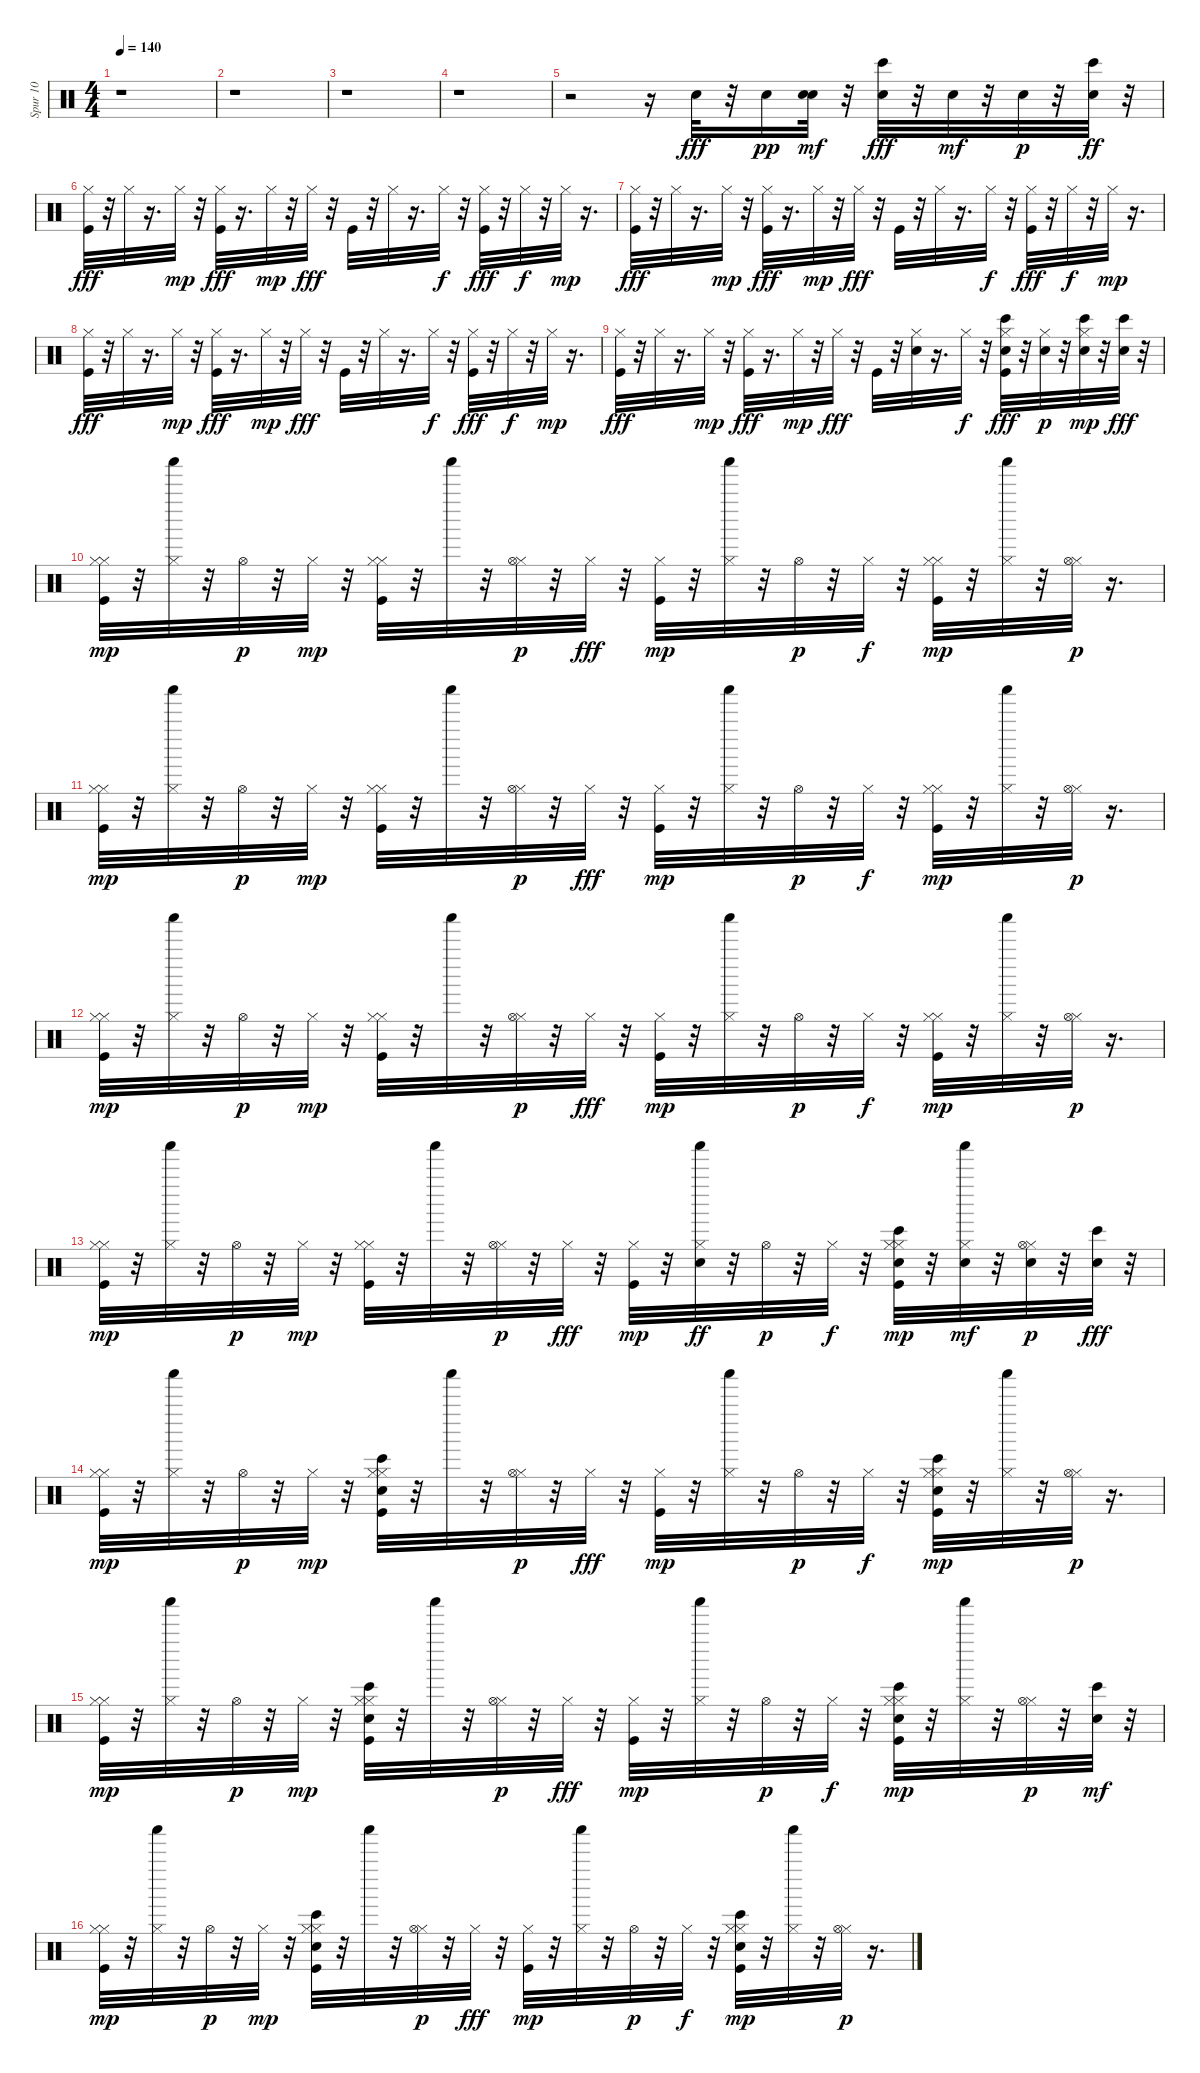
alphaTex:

\track ("Spur 10" "Spur 10") {instrument percussion}
\staff {score}
\articulation defaults
\ts (4 4)
\tempo 140
\clef neutral
\ks c
r.1{dy fff} |
r.1 |
r.1 |
r.1 |
r.2 r.16 "Snare (hit)".32 r.32 "Snare (hit) 2".16{dy pp} ("Snare (hit) 2" "Snare (hit) 2").32{dy mf} r.32 ("Electric Snare (hit)" "Bongo High (hit)").32{dy fff} r.32 "Snare (hit) 2".32{dy mf} r.32 "Snare (hit) 2".32{dy p} r.32 ("Electric Snare (hit)" "Bongo High (hit)").32{dy ff} r.32 |
("Hi-Hat (closed)" "Kick (hit)").32{dy fff} r.32 "Hi-Hat (closed)".32 r.16{d} "Hi-Hat (closed)".32{dy mp} r.32 ("Hi-Hat (closed)" "Kick (hit)").32{dy fff} r.16{d} "Hi-Hat (closed)".32{dy mp} r.32 "Hi-Hat (closed)".32{dy fff} r.32 "Kick (hit)".32 r.32 "Hi-Hat (closed)".32 r.16{d} "Hi-Hat (closed)".32{dy f} r.32 ("Hi-Hat (closed)" "Kick (hit)").32{dy fff} r.32 "Hi-Hat (closed)".32{dy f} r.32 "Hi-Hat (closed)".32{dy mp} r.16{d} |
("Hi-Hat (closed)" "Kick (hit)").32{dy fff} r.32 "Hi-Hat (closed)".32 r.16{d} "Hi-Hat (closed)".32{dy mp} r.32 ("Hi-Hat (closed)" "Kick (hit)").32{dy fff} r.16{d} "Hi-Hat (closed)".32{dy mp} r.32 "Hi-Hat (closed)".32{dy fff} r.32 "Kick (hit)".32 r.32 "Hi-Hat (closed)".32 r.16{d} "Hi-Hat (closed)".32{dy f} r.32 ("Hi-Hat (closed)" "Kick (hit)").32{dy fff} r.32 "Hi-Hat (closed)".32{dy f} r.32 "Hi-Hat (closed)".32{dy mp} r.16{d} |
("Hi-Hat (closed)" "Kick (hit)").32{dy fff} r.32 "Hi-Hat (closed)".32 r.16{d} "Hi-Hat (closed)".32{dy mp} r.32 ("Hi-Hat (closed)" "Kick (hit)").32{dy fff} r.16{d} "Hi-Hat (closed)".32{dy mp} r.32 "Hi-Hat (closed)".32{dy fff} r.32 "Kick (hit)".32 r.32 "Hi-Hat (closed)".32 r.16{d} "Hi-Hat (closed)".32{dy f} r.32 ("Hi-Hat (closed)" "Kick (hit)").32{dy fff} r.32 "Hi-Hat (closed)".32{dy f} r.32 "Hi-Hat (closed)".32{dy mp} r.16{d} |
("Hi-Hat (closed)" "Kick (hit)").32{dy fff} r.32 "Hi-Hat (closed)".32 r.16{d} "Hi-Hat (closed)".32{dy mp} r.32 ("Hi-Hat (closed)" "Kick (hit)").32{dy fff} r.16{d} "Hi-Hat (closed)".32{dy mp} r.32 "Hi-Hat (closed)".32{dy fff} r.32 "Kick (hit)".32 r.32 ("Hi-Hat (closed)" "Snare (hit)").32 r.16{d} "Hi-Hat (closed)".32{dy f} r.32 ("Hi-Hat (closed)" "Kick (hit)" "Bongo High (hit)" "Electric Snare (hit)").32{dy fff} r.32 ("Hi-Hat (closed)" "Snare (hit) 2").32{dy p} r.32 ("Hi-Hat (closed)" "Bongo High (hit)" "Electric Snare (hit)").32{dy mp} r.32 ("Bongo High (hit)" "Electric Snare (hit)").32{dy fff} r.32 |
("Hi-Hat (closed)" "Kick (hit)" "Hi-Hat (closed)").32{dy mp} r.32 ("Hi-Hat (closed)" "Shaker (hit)").32 r.32 "Hi-Hat (open)".32{dy p} r.32 "Hi-Hat (closed)".32{dy mp} r.32 ("Hi-Hat (closed)" "Kick (hit)" "Hi-Hat (closed)").32 r.32 "Shaker (hit)".32 r.32 ("Hi-Hat (closed)" "Hi-Hat (open)").32{dy p} r.32 "Hi-Hat (closed)".32{dy fff} r.32 ("Kick (hit)" "Hi-Hat (closed)").32{dy mp} r.32 ("Hi-Hat (closed)" "Shaker (hit)").32 r.32 "Hi-Hat (open)".32{dy p} r.32 "Hi-Hat (closed)".32{dy f} r.32 ("Hi-Hat (closed)" "Kick (hit)" "Hi-Hat (closed)").32{dy mp} r.32 ("Hi-Hat (closed)" "Shaker (hit)").32 r.32 ("Hi-Hat (closed)" "Hi-Hat (open)").32{dy p} r.16{d} |
("Hi-Hat (closed)" "Kick (hit)" "Hi-Hat (closed)").32{dy mp} r.32 ("Hi-Hat (closed)" "Shaker (hit)").32 r.32 "Hi-Hat (open)".32{dy p} r.32 "Hi-Hat (closed)".32{dy mp} r.32 ("Hi-Hat (closed)" "Kick (hit)" "Hi-Hat (closed)").32 r.32 "Shaker (hit)".32 r.32 ("Hi-Hat (closed)" "Hi-Hat (open)").32{dy p} r.32 "Hi-Hat (closed)".32{dy fff} r.32 ("Kick (hit)" "Hi-Hat (closed)").32{dy mp} r.32 ("Hi-Hat (closed)" "Shaker (hit)").32 r.32 "Hi-Hat (open)".32{dy p} r.32 "Hi-Hat (closed)".32{dy f} r.32 ("Hi-Hat (closed)" "Kick (hit)" "Hi-Hat (closed)").32{dy mp} r.32 ("Hi-Hat (closed)" "Shaker (hit)").32 r.32 ("Hi-Hat (closed)" "Hi-Hat (open)").32{dy p} r.16{d} |
("Hi-Hat (closed)" "Kick (hit)" "Hi-Hat (closed)").32{dy mp} r.32 ("Hi-Hat (closed)" "Shaker (hit)").32 r.32 "Hi-Hat (open)".32{dy p} r.32 "Hi-Hat (closed)".32{dy mp} r.32 ("Hi-Hat (closed)" "Kick (hit)" "Hi-Hat (closed)").32 r.32 "Shaker (hit)".32 r.32 ("Hi-Hat (closed)" "Hi-Hat (open)").32{dy p} r.32 "Hi-Hat (closed)".32{dy fff} r.32 ("Kick (hit)" "Hi-Hat (closed)").32{dy mp} r.32 ("Hi-Hat (closed)" "Shaker (hit)").32 r.32 "Hi-Hat (open)".32{dy p} r.32 "Hi-Hat (closed)".32{dy f} r.32 ("Hi-Hat (closed)" "Kick (hit)" "Hi-Hat (closed)").32{dy mp} r.32 ("Hi-Hat (closed)" "Shaker (hit)").32 r.32 ("Hi-Hat (closed)" "Hi-Hat (open)").32{dy p} r.16{d} |
("Hi-Hat (closed)" "Kick (hit)" "Hi-Hat (closed)").32{dy mp} r.32 ("Hi-Hat (closed)" "Shaker (hit)").32 r.32 "Hi-Hat (open)".32{dy p} r.32 "Hi-Hat (closed)".32{dy mp} r.32 ("Hi-Hat (closed)" "Kick (hit)" "Hi-Hat (closed)").32 r.32 "Shaker (hit)".32 r.32 ("Hi-Hat (closed)" "Hi-Hat (open)").32{dy p} r.32 "Hi-Hat (closed)".32{dy fff} r.32 ("Kick (hit)" "Hi-Hat (closed)").32{dy mp} r.32 ("Hi-Hat (closed)" "Shaker (hit)" "Snare (hit)").32{dy ff} r.32 "Hi-Hat (open)".32{dy p} r.32 "Hi-Hat (closed)".32{dy f} r.32 ("Hi-Hat (closed)" "Kick (hit)" "Bongo High (hit)" "Electric Snare (hit)" "Hi-Hat (closed)").32{dy mp} r.32 ("Hi-Hat (closed)" "Shaker (hit)" "Snare (hit) 2").32{dy mf} r.32 ("Hi-Hat (closed)" "Snare (hit) 2" "Hi-Hat (open)").32{dy p} r.32 ("Bongo High (hit)" "Electric Snare (hit)").32{dy fff} r.32 |
("Hi-Hat (closed)" "Kick (hit)" "Hi-Hat (closed)").32{dy mp} r.32 ("Hi-Hat (closed)" "Shaker (hit)").32 r.32 "Hi-Hat (open)".32{dy p} r.32 "Hi-Hat (closed)".32{dy mp} r.32 ("Hi-Hat (closed)" "Kick (hit)" "Bongo High (hit)" "Electric Snare (hit)" "Hi-Hat (closed)").32 r.32 "Shaker (hit)".32 r.32 ("Hi-Hat (closed)" "Hi-Hat (open)").32{dy p} r.32 "Hi-Hat (closed)".32{dy fff} r.32 ("Kick (hit)" "Hi-Hat (closed)").32{dy mp} r.32 ("Hi-Hat (closed)" "Shaker (hit)").32 r.32 "Hi-Hat (open)".32{dy p} r.32 "Hi-Hat (closed)".32{dy f} r.32 ("Hi-Hat (closed)" "Kick (hit)" "Bongo High (hit)" "Electric Snare (hit)" "Hi-Hat (closed)").32{dy mp} r.32 ("Hi-Hat (closed)" "Shaker (hit)").32 r.32 ("Hi-Hat (closed)" "Hi-Hat (open)").32{dy p} r.16{d} |
("Hi-Hat (closed)" "Kick (hit)" "Hi-Hat (closed)").32{dy mp} r.32 ("Hi-Hat (closed)" "Shaker (hit)").32 r.32 "Hi-Hat (open)".32{dy p} r.32 "Hi-Hat (closed)".32{dy mp} r.32 ("Hi-Hat (closed)" "Kick (hit)" "Bongo High (hit)" "Electric Snare (hit)" "Hi-Hat (closed)").32 r.32 "Shaker (hit)".32 r.32 ("Hi-Hat (closed)" "Hi-Hat (open)").32{dy p} r.32 "Hi-Hat (closed)".32{dy fff} r.32 ("Kick (hit)" "Hi-Hat (closed)").32{dy mp} r.32 ("Hi-Hat (closed)" "Shaker (hit)").32 r.32 "Hi-Hat (open)".32{dy p} r.32 "Hi-Hat (closed)".32{dy f} r.32 ("Hi-Hat (closed)" "Kick (hit)" "Bongo High (hit)" "Electric Snare (hit)" "Hi-Hat (closed)").32{dy mp} r.32 ("Hi-Hat (closed)" "Shaker (hit)").32 r.32 ("Hi-Hat (closed)" "Hi-Hat (open)").32{dy p} r.32 ("Bongo High (hit)" "Electric Snare (hit)").32{dy mf} r.32 |
("Hi-Hat (closed)" "Kick (hit)" "Hi-Hat (closed)").32{dy mp} r.32 ("Hi-Hat (closed)" "Shaker (hit)").32 r.32 "Hi-Hat (open)".32{dy p} r.32 "Hi-Hat (closed)".32{dy mp} r.32 ("Hi-Hat (closed)" "Kick (hit)" "Bongo High (hit)" "Electric Snare (hit)" "Hi-Hat (closed)").32 r.32 "Shaker (hit)".32 r.32 ("Hi-Hat (closed)" "Hi-Hat (open)").32{dy p} r.32 "Hi-Hat (closed)".32{dy fff} r.32 ("Kick (hit)" "Hi-Hat (closed)").32{dy mp} r.32 ("Hi-Hat (closed)" "Shaker (hit)").32 r.32 "Hi-Hat (open)".32{dy p} r.32 "Hi-Hat (closed)".32{dy f} r.32 ("Hi-Hat (closed)" "Kick (hit)" "Bongo High (hit)" "Electric Snare (hit)" "Hi-Hat (closed)").32{dy mp} r.32 ("Hi-Hat (closed)" "Shaker (hit)").32 r.32 ("Hi-Hat (closed)" "Hi-Hat (open)").32{dy p} r.16{d}
